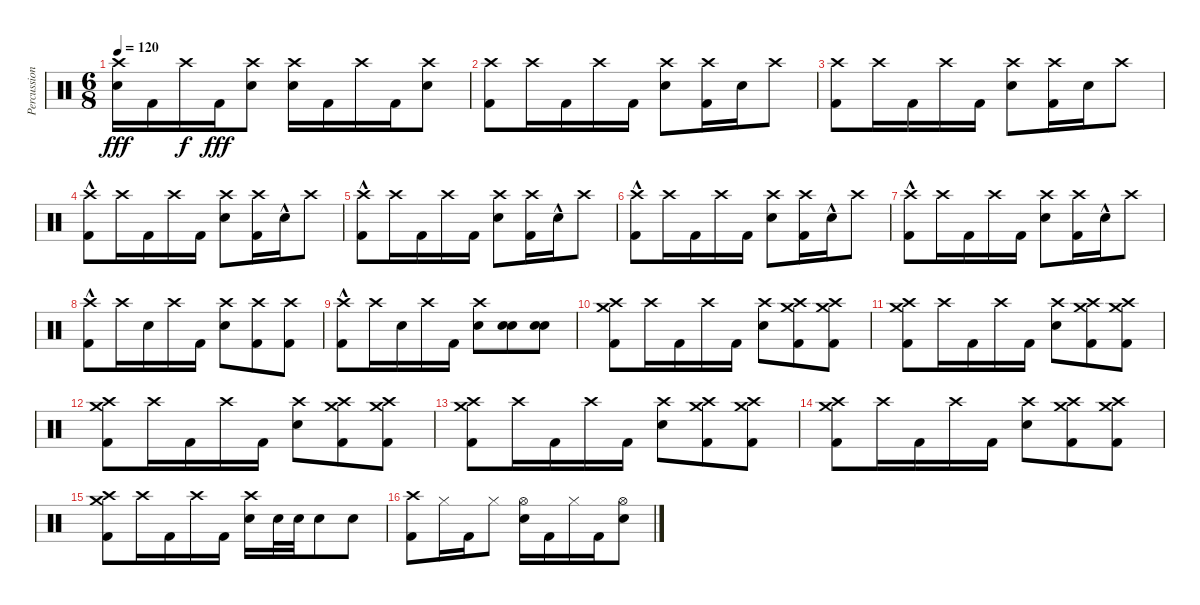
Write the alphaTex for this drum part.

\track ("Percussion" "Percussion") {instrument percussion}
\staff {score}
\articulation defaults
\ts (6 8)
\tempo 120
\clef neutral
\ks c
("Crash high (hit)" "Electric Snare (hit)").16{dy fff} "Kick (hit) 2".16 "Crash high (hit)".16{dy f} "Kick (hit) 2".16{dy fff} ("Crash high (hit)" "Electric Snare (hit)").8 ("Crash high (hit)" "Electric Snare (hit)").16 "Kick (hit) 2".16 "Crash high (hit)".16 "Kick (hit) 2".16 ("Crash high (hit)" "Electric Snare (hit)").8 |
("Crash high (hit)" "Kick (hit) 2").8 "Crash high (hit)".16 "Kick (hit) 2".16 "Crash high (hit)".16 "Kick (hit) 2".16 ("Crash high (hit)" "Electric Snare (hit)").8 ("Crash high (hit)" "Kick (hit) 2").16 "Electric Snare (hit)".16 "Crash high (hit)".8 |
("Crash high (hit)" "Kick (hit) 2").8 "Crash high (hit)".16 "Kick (hit) 2".16 "Crash high (hit)".16 "Kick (hit) 2".16 ("Crash high (hit)" "Electric Snare (hit)").8 ("Crash high (hit)" "Kick (hit) 2").16 "Electric Snare (hit)".16 "Crash high (hit)".8 |
("Crash high (hit)" "Kick (hit) 2"{hac}).8 "Crash high (hit)".16 "Kick (hit) 2".16 "Crash high (hit)".16 "Kick (hit) 2".16 ("Crash high (hit)" "Electric Snare (hit)").8 ("Crash high (hit)" "Kick (hit) 2").16 "Electric Snare (hit)"{hac}.16 "Crash high (hit)".8 |
("Crash high (hit)" "Kick (hit) 2"{hac}).8 "Crash high (hit)".16 "Kick (hit) 2".16 "Crash high (hit)".16 "Kick (hit) 2".16 ("Crash high (hit)" "Electric Snare (hit)").8 ("Crash high (hit)" "Kick (hit) 2").16 "Electric Snare (hit)"{hac}.16 "Crash high (hit)".8 |
("Crash high (hit)" "Kick (hit) 2"{hac}).8 "Crash high (hit)".16 "Kick (hit) 2".16 "Crash high (hit)".16 "Kick (hit) 2".16 ("Crash high (hit)" "Electric Snare (hit)").8 ("Crash high (hit)" "Kick (hit) 2").16 "Electric Snare (hit)"{hac}.16 "Crash high (hit)".8 |
("Crash high (hit)" "Kick (hit) 2"{hac}).8 "Crash high (hit)".16 "Kick (hit) 2".16 "Crash high (hit)".16 "Kick (hit) 2".16 ("Crash high (hit)" "Electric Snare (hit)").8 ("Crash high (hit)" "Kick (hit) 2").16 "Electric Snare (hit)"{hac}.16 "Crash high (hit)".8 |
("Crash high (hit)" "Kick (hit) 2"{hac}).8 "Crash high (hit)".16 "Electric Snare (hit)".16 "Crash high (hit)".16 "Kick (hit) 2".16 ("Crash high (hit)" "Electric Snare (hit)").8 ("Crash high (hit)" "Kick (hit) 2").8 ("Crash high (hit)" "Kick (hit) 2").8 |
("Crash high (hit)" "Kick (hit) 2"{hac}).8 "Crash high (hit)".16 "Electric Snare (hit)".16 "Crash high (hit)".16 "Kick (hit) 2".16 ("Crash high (hit)" "Electric Snare (hit)").8 ("Electric Snare (hit)" "Electric Snare (hit)").8 ("Electric Snare (hit)" "Electric Snare (hit)").8 |
("Crash high (hit)" "Crash medium (hit)" "Kick (hit) 2").8 "Crash high (hit)".16 "Kick (hit) 2".16 "Crash high (hit)".16 "Kick (hit) 2".16 ("Crash high (hit)" "Electric Snare (hit)").8 ("Crash high (hit)" "Crash medium (hit)" "Kick (hit) 2").8 ("Crash high (hit)" "Crash medium (hit)" "Kick (hit) 2").8 |
("Crash high (hit)" "Crash medium (hit)" "Kick (hit) 2").8 "Crash high (hit)".16 "Kick (hit) 2".16 "Crash high (hit)".16 "Kick (hit) 2".16 ("Crash high (hit)" "Electric Snare (hit)").8 ("Crash high (hit)" "Crash medium (hit)" "Kick (hit) 2").8 ("Crash high (hit)" "Crash medium (hit)" "Kick (hit) 2").8 |
("Crash high (hit)" "Crash medium (hit)" "Kick (hit) 2").8 "Crash high (hit)".16 "Kick (hit) 2".16 "Crash high (hit)".16 "Kick (hit) 2".16 ("Crash high (hit)" "Electric Snare (hit)").8 ("Crash high (hit)" "Crash medium (hit)" "Kick (hit) 2").8 ("Crash high (hit)" "Crash medium (hit)" "Kick (hit) 2").8 |
("Crash high (hit)" "Crash medium (hit)" "Kick (hit) 2").8 "Crash high (hit)".16 "Kick (hit) 2".16 "Crash high (hit)".16 "Kick (hit) 2".16 ("Crash high (hit)" "Electric Snare (hit)").8 ("Crash high (hit)" "Crash medium (hit)" "Kick (hit) 2").8 ("Crash high (hit)" "Crash medium (hit)" "Kick (hit) 2").8 |
("Crash high (hit)" "Crash medium (hit)" "Kick (hit) 2").8 "Crash high (hit)".16 "Kick (hit) 2".16 "Crash high (hit)".16 "Kick (hit) 2".16 ("Crash high (hit)" "Electric Snare (hit)").8 ("Crash high (hit)" "Crash medium (hit)" "Kick (hit) 2").8 ("Crash high (hit)" "Crash medium (hit)" "Kick (hit) 2").8 |
("Crash high (hit)" "Crash medium (hit)" "Kick (hit) 2").8 "Crash high (hit)".16 "Kick (hit) 2".16 "Crash high (hit)".16 "Kick (hit) 2".16 ("Crash high (hit)" "Electric Snare (hit)").16 "Electric Snare (hit)".32 "Electric Snare (hit)".32 "Electric Snare (hit)".8 "Electric Snare (hit)".8 |
("Crash high (hit)" "Kick (hit) 2").8 "Hi-Hat (closed)".16 "Kick (hit) 2".16 "Hi-Hat (closed)".8 ("Hi-Hat (open)" "Electric Snare (hit)").16 "Kick (hit) 2".16 "Hi-Hat (closed)".16 "Kick (hit) 2".16 ("Hi-Hat (open)" "Electric Snare (hit)").8
